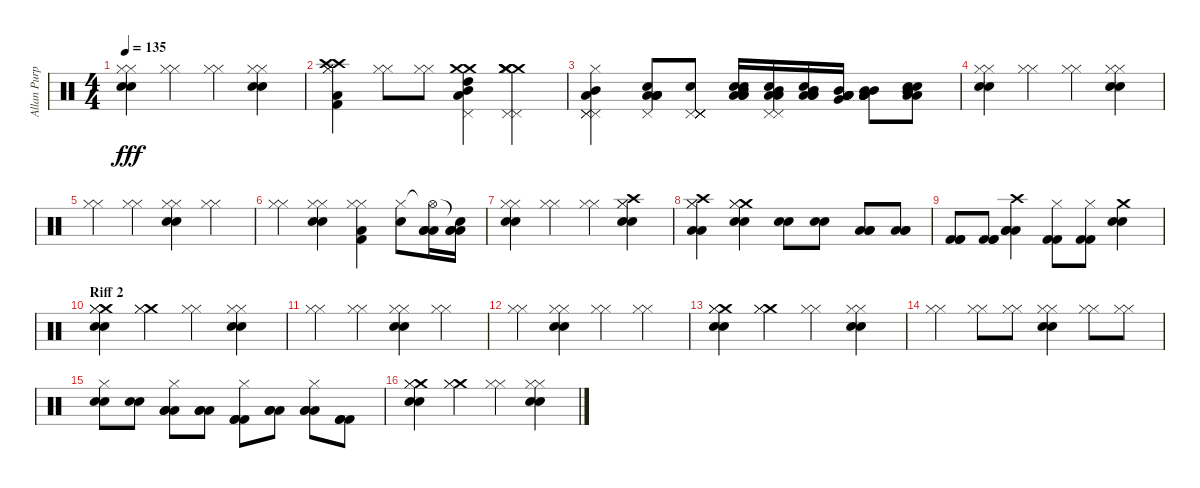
\track ("Allan Purple" "Allan Purp") {instrument percussion}
\staff {score}
\articulation defaults
\ts (4 4)
\tempo 135
\clef neutral
\ks c
("Hi-Hat (closed)" "Hi-Hat (closed)" "Electric Snare (hit)" "Electric Snare (hit)").4{dy fff} ("Hi-Hat (closed)" "Hi-Hat (closed)").4 ("Hi-Hat (closed)" "Hi-Hat (closed)").4 ("Hi-Hat (closed)" "Hi-Hat (closed)" "Electric Snare (hit)" "Electric Snare (hit)").4 |
("Crash high (hit)" "Crash high (hit)" "Hi-Hat (closed)" "Hi-Hat (closed)" "Kick (hit) 2" "Low Tom (hit)").4 ("Hi-Hat (closed)" "Hi-Hat (closed)").8 ("Hi-Hat (closed)" "Hi-Hat (closed)").8 ("Crash medium (hit)" "Pedal Hi-Hat (hit)" "Low Tom (hit)" "Mid Tom (hit)" "High Tom (hit)" "Crash medium (hit)").4 ("Crash medium (hit)" "Pedal Hi-Hat (hit)" "Hi-Hat (closed)" "Crash medium (hit)" "Pedal Hi-Hat (hit)" "Crash medium (hit)").4 |
("Pedal Hi-Hat (hit)" "Hi-Hat (closed)" "Pedal Hi-Hat (hit)" "Pedal Hi-Hat (hit)" "Low Floor Tom (hit)" "Mid Tom (hit)").4 ("Pedal Hi-Hat (hit)" "Low Floor Tom (hit)" "Low Floor Tom (hit)" "Electric Snare (hit)" "Low Floor Tom (hit)" "Low Floor Tom (hit)").8 ("Pedal Hi-Hat (hit)" "Pedal Hi-Hat (hit)" "Pedal Hi-Hat (hit)" "Pedal Hi-Hat (hit)" "Pedal Hi-Hat (hit)" "Electric Snare (hit)").8 ("Electric Snare (hit)" "Low Tom (hit)" "Electric Snare (hit)" "Mid Tom (hit)" "Low Tom (hit)" "Low Tom (hit)").16 ("Pedal Hi-Hat (hit)" "Pedal Hi-Hat (hit)" "Electric Snare (hit)" "Low Tom (hit)" "Mid Tom (hit)" "Low Tom (hit)").16 ("Mid Tom (hit)" "Mid Tom (hit)" "Electric Snare (hit)" "Low Tom (hit)" "Low Tom (hit)" "Low Tom (hit)").16 ("Low Tom (hit)" "Very Low Tom (hit)" "Low Tom (hit)" "Low Tom (hit)" "Low Tom (hit)" "Mid Tom (hit)").16 ("Mid Tom (hit)" "Low Tom (hit)" "Mid Tom (hit)" "Low Tom (hit)" "Low Tom (hit)" "Low Tom (hit)").8 ("Mid Tom (hit)" "Low Tom (hit)" "Low Tom (hit)" "Electric Snare (hit)" "Electric Snare (hit)").8 |
("Hi-Hat (closed)" "Hi-Hat (closed)" "Electric Snare (hit)" "Electric Snare (hit)").4 ("Hi-Hat (closed)" "Hi-Hat (closed)").4 ("Hi-Hat (closed)" "Hi-Hat (closed)").4 ("Hi-Hat (closed)" "Hi-Hat (closed)" "Electric Snare (hit)" "Electric Snare (hit)").4 |
("Hi-Hat (closed)" "Hi-Hat (closed)").4 ("Hi-Hat (closed)" "Hi-Hat (closed)").4 ("Hi-Hat (closed)" "Hi-Hat (closed)" "Electric Snare (hit)" "Electric Snare (hit)").4 ("Hi-Hat (closed)" "Hi-Hat (closed)").4 |
("Hi-Hat (closed)" "Hi-Hat (closed)").4 ("Hi-Hat (closed)" "Hi-Hat (closed)" "Electric Snare (hit)" "Electric Snare (hit)").4 ("Hi-Hat (closed)" "Hi-Hat (closed)" "Kick (hit) 2" "Low Tom (hit)").4 ("Hi-Hat (closed)" "Electric Snare (hit)").8 ("Hi-Hat (open)"{t} "Low Tom (hit)" "Low Tom (hit)" "Low Tom (hit)").16 ("Snare (hit)"{t} "Low Tom (hit)" "Low Tom (hit)" "Low Tom (hit)").16 |
("Hi-Hat (closed)" "Hi-Hat (closed)" "Electric Snare (hit)" "Electric Snare (hit)").4 ("Hi-Hat (closed)" "Hi-Hat (closed)").4 ("Hi-Hat (closed)" "Hi-Hat (closed)").4 ("Crash high (hit)" "Hi-Hat (closed)" "Hi-Hat (closed)" "Electric Snare (hit)" "Electric Snare (hit)").4 |
("Crash high (hit)" "Hi-Hat (closed)" "Hi-Hat (closed)" "Low Tom (hit)" "Low Tom (hit)").4 ("Crash medium (hit)" "Hi-Hat (closed)" "Hi-Hat (closed)" "Electric Snare (hit)" "Electric Snare (hit)").4 ("Electric Snare (hit)" "Electric Snare (hit)").8 ("Electric Snare (hit)" "Electric Snare (hit)").8 ("Low Tom (hit)" "Low Tom (hit)" "Low Tom (hit)").8 ("Low Tom (hit)" "Low Tom (hit)" "Low Tom (hit)").8 |
("Kick (hit) 2" "Kick (hit) 2" "Kick (hit) 2").8 ("Kick (hit) 2" "Kick (hit) 2" "Kick (hit) 2").8 ("Crash high (hit)" "Low Tom (hit)" "Low Tom (hit)" "Low Tom (hit)").4 ("Hi-Hat (closed)" "Kick (hit) 2" "Kick (hit) 2").8 ("Hi-Hat (closed)" "Kick (hit) 2" "Kick (hit) 2").8 ("Crash medium (hit)" "Electric Snare (hit)" "Electric Snare (hit)").4 |
\section ("" "Riff 2")
("Crash medium (hit)" "Hi-Hat (closed)" "Hi-Hat (closed)" "Electric Snare (hit)" "Electric Snare (hit)").4 ("Crash medium (hit)" "Hi-Hat (closed)" "Hi-Hat (closed)").4 ("Hi-Hat (closed)" "Hi-Hat (closed)").4 ("Hi-Hat (closed)" "Hi-Hat (closed)" "Electric Snare (hit)" "Electric Snare (hit)").4 |
("Hi-Hat (closed)" "Hi-Hat (closed)").4 ("Hi-Hat (closed)" "Hi-Hat (closed)").4 ("Hi-Hat (closed)" "Hi-Hat (closed)" "Electric Snare (hit)" "Electric Snare (hit)").4 ("Hi-Hat (closed)" "Hi-Hat (closed)").4 |
("Hi-Hat (closed)" "Hi-Hat (closed)").4 ("Hi-Hat (closed)" "Hi-Hat (closed)" "Electric Snare (hit)" "Electric Snare (hit)").4 ("Hi-Hat (closed)" "Hi-Hat (closed)").4 ("Hi-Hat (closed)" "Hi-Hat (closed)").4 |
("Crash medium (hit)" "Hi-Hat (closed)" "Hi-Hat (closed)" "Electric Snare (hit)" "Electric Snare (hit)").4 ("Crash medium (hit)" "Hi-Hat (closed)" "Hi-Hat (closed)").4 ("Hi-Hat (closed)" "Hi-Hat (closed)").4 ("Hi-Hat (closed)" "Hi-Hat (closed)" "Electric Snare (hit)" "Electric Snare (hit)").4 |
("Hi-Hat (closed)" "Hi-Hat (closed)").4 ("Hi-Hat (closed)" "Hi-Hat (closed)").8 ("Hi-Hat (closed)" "Hi-Hat (closed)").8 ("Hi-Hat (closed)" "Hi-Hat (closed)" "Electric Snare (hit)" "Electric Snare (hit)").4 ("Hi-Hat (closed)" "Hi-Hat (closed)").8 ("Hi-Hat (closed)" "Hi-Hat (closed)").8 |
("Hi-Hat (closed)" "Electric Snare (hit)" "Electric Snare (hit)").8 ("Electric Snare (hit)" "Electric Snare (hit)").8 ("Hi-Hat (closed)" "Low Tom (hit)" "Low Tom (hit)" "Low Tom (hit)").8 ("Low Tom (hit)" "Low Tom (hit)" "Low Tom (hit)").8 ("Hi-Hat (closed)" "Kick (hit) 2" "Kick (hit) 2" "Kick (hit) 2").8 ("Low Tom (hit)" "Low Tom (hit)" "Low Tom (hit)").8 ("Hi-Hat (closed)" "Low Tom (hit)" "Low Tom (hit)" "Low Tom (hit)").8 ("Kick (hit) 2" "Kick (hit) 2" "Kick (hit) 2").8 |
("Crash medium (hit)" "Hi-Hat (closed)" "Hi-Hat (closed)" "Electric Snare (hit)" "Electric Snare (hit)").4 ("Crash medium (hit)" "Hi-Hat (closed)" "Hi-Hat (closed)").4 ("Hi-Hat (closed)" "Hi-Hat (closed)").4 ("Hi-Hat (closed)" "Hi-Hat (closed)" "Electric Snare (hit)" "Electric Snare (hit)").4
